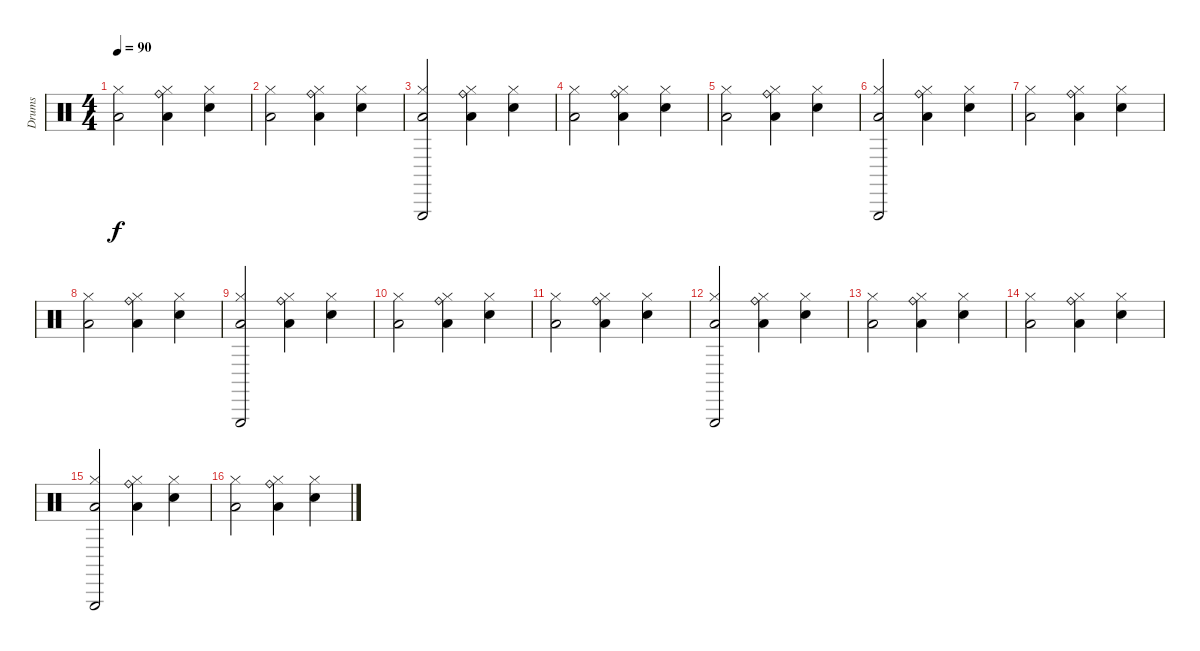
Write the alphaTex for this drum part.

\track ("Drums" "Drums") {instrument percussion}
\staff {score}
\articulation defaults
\ts (4 4)
\tempo 90
\clef neutral
\ks c
("Hi-Hat (closed)" "Low Floor Tom (hit)").2{dy f} ("Hi-Hat (closed)" "Ride (bell)" "Low Floor Tom (hit)").4 ("Hi-Hat (closed)" "Electric Snare (hit)").4 |
("Hi-Hat (closed)" "Low Floor Tom (hit)").2 ("Hi-Hat (closed)" "Ride (bell)" "Low Floor Tom (hit)").4 ("Hi-Hat (closed)" "Electric Snare (hit)").4 |
("Triangle (hit)" "Hi-Hat (closed)" "Low Floor Tom (hit)").2 ("Hi-Hat (closed)" "Ride (bell)" "Low Floor Tom (hit)").4 ("Hi-Hat (closed)" "Electric Snare (hit)").4 |
("Hi-Hat (closed)" "Low Floor Tom (hit)").2 ("Hi-Hat (closed)" "Ride (bell)" "Low Floor Tom (hit)").4 ("Hi-Hat (closed)" "Electric Snare (hit)").4 |
("Hi-Hat (closed)" "Low Floor Tom (hit)").2 ("Hi-Hat (closed)" "Ride (bell)" "Low Floor Tom (hit)").4 ("Hi-Hat (closed)" "Electric Snare (hit)").4 |
("Triangle (hit)" "Hi-Hat (closed)" "Low Floor Tom (hit)").2 ("Hi-Hat (closed)" "Ride (bell)" "Low Floor Tom (hit)").4 ("Hi-Hat (closed)" "Electric Snare (hit)").4 |
("Hi-Hat (closed)" "Low Floor Tom (hit)").2 ("Hi-Hat (closed)" "Ride (bell)" "Low Floor Tom (hit)").4 ("Hi-Hat (closed)" "Electric Snare (hit)").4 |
("Hi-Hat (closed)" "Low Floor Tom (hit)").2 ("Hi-Hat (closed)" "Ride (bell)" "Low Floor Tom (hit)").4 ("Hi-Hat (closed)" "Electric Snare (hit)").4 |
("Triangle (hit)" "Hi-Hat (closed)" "Low Floor Tom (hit)").2 ("Hi-Hat (closed)" "Ride (bell)" "Low Floor Tom (hit)").4 ("Hi-Hat (closed)" "Electric Snare (hit)").4 |
("Hi-Hat (closed)" "Low Floor Tom (hit)").2 ("Hi-Hat (closed)" "Ride (bell)" "Low Floor Tom (hit)").4 ("Hi-Hat (closed)" "Electric Snare (hit)").4 |
("Hi-Hat (closed)" "Low Floor Tom (hit)").2 ("Hi-Hat (closed)" "Ride (bell)" "Low Floor Tom (hit)").4 ("Hi-Hat (closed)" "Electric Snare (hit)").4 |
("Triangle (hit)" "Hi-Hat (closed)" "Low Floor Tom (hit)").2 ("Hi-Hat (closed)" "Ride (bell)" "Low Floor Tom (hit)").4 ("Hi-Hat (closed)" "Electric Snare (hit)").4 |
("Hi-Hat (closed)" "Low Floor Tom (hit)").2 ("Hi-Hat (closed)" "Ride (bell)" "Low Floor Tom (hit)").4 ("Hi-Hat (closed)" "Electric Snare (hit)").4 |
("Hi-Hat (closed)" "Low Floor Tom (hit)").2 ("Hi-Hat (closed)" "Ride (bell)" "Low Floor Tom (hit)").4 ("Hi-Hat (closed)" "Electric Snare (hit)").4 |
("Triangle (hit)" "Hi-Hat (closed)" "Low Floor Tom (hit)").2 ("Hi-Hat (closed)" "Ride (bell)" "Low Floor Tom (hit)").4 ("Hi-Hat (closed)" "Electric Snare (hit)").4 |
("Hi-Hat (closed)" "Low Floor Tom (hit)").2 ("Hi-Hat (closed)" "Ride (bell)" "Low Floor Tom (hit)").4 ("Hi-Hat (closed)" "Electric Snare (hit)").4
